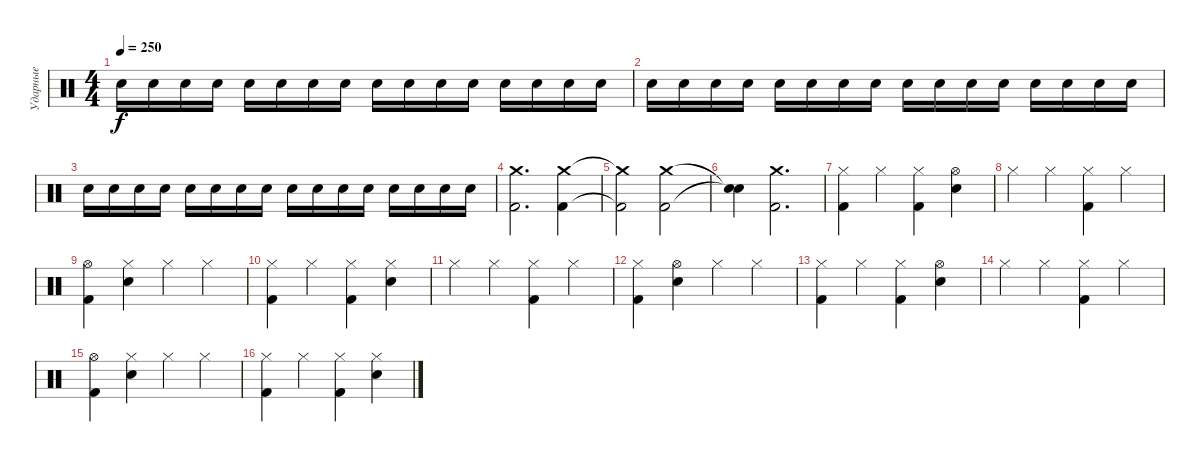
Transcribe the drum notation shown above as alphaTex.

\track ("Ударные" "Ударные") {instrument percussion}
\staff {score}
\articulation defaults
\ts (4 4)
\tempo 250
\clef neutral
\ks c "Electric Snare (hit)".16{dy f} "Electric Snare (hit)".16 "Electric Snare (hit)".16 "Electric Snare (hit)".16 "Electric Snare (hit)".16 "Electric Snare (hit)".16 "Electric Snare (hit)".16 "Electric Snare (hit)".16 "Electric Snare (hit)".16 "Electric Snare (hit)".16 "Electric Snare (hit)".16 "Electric Snare (hit)".16 "Electric Snare (hit)".16 "Electric Snare (hit)".16 "Electric Snare (hit)".16 "Electric Snare (hit)".16
|
"Electric Snare (hit)".16 "Electric Snare (hit)".16 "Electric Snare (hit)".16 "Electric Snare (hit)".16 "Electric Snare (hit)".16 "Electric Snare (hit)".16 "Electric Snare (hit)".16 "Electric Snare (hit)".16 "Electric Snare (hit)".16 "Electric Snare (hit)".16 "Electric Snare (hit)".16 "Electric Snare (hit)".16 "Electric Snare (hit)".16 "Electric Snare (hit)".16 "Electric Snare (hit)".16 "Electric Snare (hit)".16 |
"Electric Snare (hit)".16 "Electric Snare (hit)".16 "Electric Snare (hit)".16 "Electric Snare (hit)".16 "Electric Snare (hit)".16 "Electric Snare (hit)".16 "Electric Snare (hit)".16 "Electric Snare (hit)".16 "Electric Snare (hit)".16 "Electric Snare (hit)".16 "Electric Snare (hit)".16 "Electric Snare (hit)".16 "Electric Snare (hit)".16 "Electric Snare (hit)".16 "Electric Snare (hit)".16 "Electric Snare (hit)".16 |
("Crash medium (hit)" "Kick (hit) 2").2{d} ("Crash medium (hit)" "Kick (hit) 2").4 |
("Crash medium (hit)"{t} "Kick (hit) 2"{t}).2 ("Crash medium (hit)" "Kick (hit) 2").2 |
("Snare (hit)"{t} "Snare (hit)"{t}).4 ("Crash medium (hit)" "Kick (hit) 2").2{d} |
("Hi-Hat (closed)" "Kick (hit) 2").4 "Hi-Hat (closed)".4 ("Hi-Hat (closed)" "Kick (hit) 2").4 ("Snare (hit) 2" "Hi-Hat (open)").4 |
"Hi-Hat (closed)".4 "Hi-Hat (closed)".4 ("Hi-Hat (closed)" "Kick (hit) 2").4 "Hi-Hat (closed)".4 |
("Hi-Hat (open)" "Kick (hit) 2").4 ("Snare (hit) 2" "Hi-Hat (closed)").4 "Hi-Hat (closed)".4 "Hi-Hat (closed)".4 |
("Hi-Hat (closed)" "Kick (hit) 2").4 "Hi-Hat (closed)".4 ("Hi-Hat (closed)" "Kick (hit) 2").4 ("Snare (hit) 2" "Hi-Hat (closed)").4 |
"Hi-Hat (closed)".4 "Hi-Hat (closed)".4 ("Hi-Hat (closed)" "Kick (hit) 2").4 "Hi-Hat (closed)".4 |
("Hi-Hat (closed)" "Kick (hit) 2").4 ("Snare (hit) 2" "Hi-Hat (open)").4 "Hi-Hat (closed)".4 "Hi-Hat (closed)".4 |
("Hi-Hat (closed)" "Kick (hit) 2").4 "Hi-Hat (closed)".4 ("Hi-Hat (closed)" "Kick (hit) 2").4 ("Snare (hit) 2" "Hi-Hat (open)").4 |
"Hi-Hat (closed)".4 "Hi-Hat (closed)".4 ("Hi-Hat (closed)" "Kick (hit) 2").4 "Hi-Hat (closed)".4 |
("Hi-Hat (open)" "Kick (hit) 2").4 ("Snare (hit) 2" "Hi-Hat (closed)").4 "Hi-Hat (closed)".4 "Hi-Hat (closed)".4 |
("Hi-Hat (closed)" "Kick (hit) 2").4 "Hi-Hat (closed)".4 ("Hi-Hat (closed)" "Kick (hit) 2").4 ("Snare (hit) 2" "Hi-Hat (closed)").4
